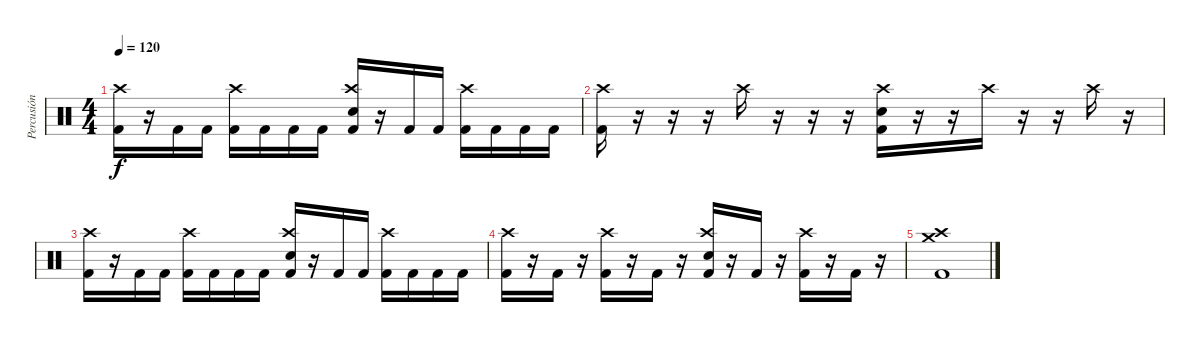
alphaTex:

\track ("Percusión" "Percusión") {instrument percussion}
\staff {score}
\articulation defaults
\ts (4 4)
\tempo 120
\clef neutral
\ks c
("Kick (hit) 2" "Crash high (hit)").16{dy f} r.16 "Kick (hit) 2".16 "Kick (hit) 2".16 ("Kick (hit) 2" "Crash high (hit)").16 "Kick (hit) 2".16 "Kick (hit) 2".16 "Kick (hit) 2".16 ("Kick (hit) 2" "Electric Snare (hit)" "Crash high (hit)").16 r.16 "Kick (hit) 2".16 "Kick (hit) 2".16 ("Kick (hit) 2" "Crash high (hit)").16 "Kick (hit) 2".16 "Kick (hit) 2".16 "Kick (hit) 2".16 |
("Kick (hit) 2" "Crash high (hit)").16 r.16 r.16 r.16 "Crash high (hit)".16 r.16 r.16 r.16 ("Kick (hit) 2" "Electric Snare (hit)" "Crash high (hit)").16 r.16 r.16 "Crash high (hit)".16 r.16 r.16 "Crash high (hit)".16 r.16 |
("Kick (hit) 2" "Crash high (hit)").16 r.16 "Kick (hit) 2".16 "Kick (hit) 2".16 ("Kick (hit) 2" "Crash high (hit)").16 "Kick (hit) 2".16 "Kick (hit) 2".16 "Kick (hit) 2".16 ("Kick (hit) 2" "Electric Snare (hit)" "Crash high (hit)").16 r.16 "Kick (hit) 2".16 "Kick (hit) 2".16 ("Kick (hit) 2" "Crash high (hit)").16 "Kick (hit) 2".16 "Kick (hit) 2".16 "Kick (hit) 2".16 |
("Kick (hit) 2" "Crash high (hit)").16 r.16 "Kick (hit) 2".16 r.16 ("Kick (hit) 2" "Crash high (hit)").16 r.16 "Kick (hit) 2".16 r.16 ("Kick (hit) 2" "Electric Snare (hit)" "Crash high (hit)").16 r.16 "Kick (hit) 2".16 r.16 ("Kick (hit) 2" "Crash high (hit)").16 r.16 "Kick (hit) 2".16 r.16 |
("Crash high (hit)" "Crash medium (hit)" "Kick (hit) 2").1
